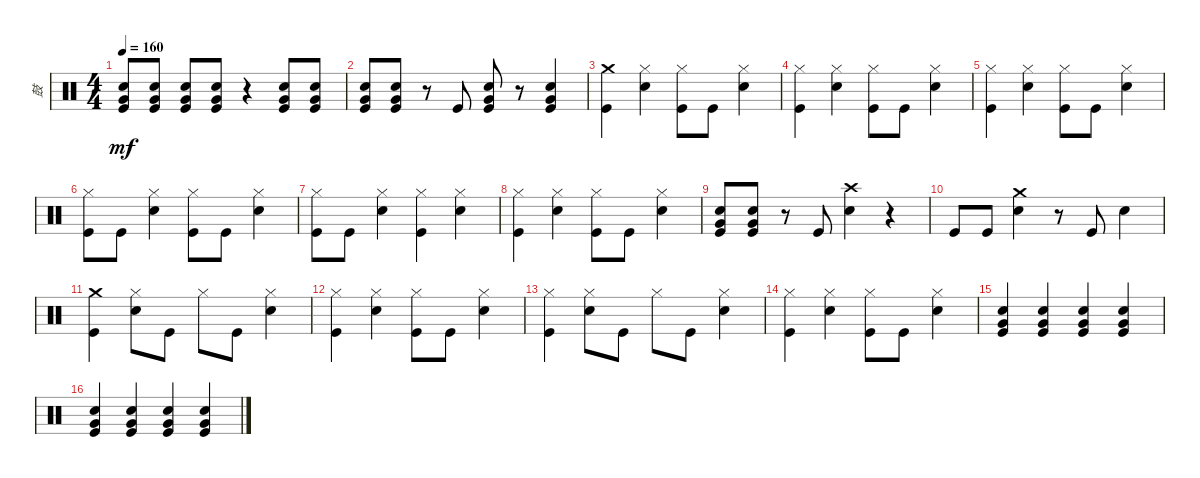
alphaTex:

\track ("鼓" "鼓") {instrument percussion}
\staff {score}
\articulation defaults
\ts (4 4)
\tempo 160
\clef neutral
\ks c
("Kick (hit)" "Very Low Tom (hit)" "Snare (hit) 2").8{dy mf} ("Kick (hit)" "Very Low Tom (hit)" "Snare (hit) 2").8 ("Kick (hit)" "Very Low Tom (hit)" "Snare (hit) 2").8 ("Kick (hit)" "Very Low Tom (hit)" "Snare (hit) 2").8 r.4 ("Kick (hit)" "Very Low Tom (hit)" "Snare (hit) 2").8 ("Kick (hit)" "Very Low Tom (hit)" "Snare (hit) 2").8 |
("Kick (hit)" "Very Low Tom (hit)" "Snare (hit) 2").8 ("Kick (hit)" "Very Low Tom (hit)" "Snare (hit) 2").8 r.8 "Kick (hit)".8 ("Kick (hit)" "Very Low Tom (hit)" "Snare (hit) 2").8 r.8 ("Kick (hit)" "Very Low Tom (hit)" "Snare (hit) 2").4 |
("Kick (hit)" "Crash medium (hit)").4 ("Hi-Hat (closed)" "Snare (hit) 2").4 ("Kick (hit)" "Hi-Hat (closed)").8 "Kick (hit)".8 ("Snare (hit) 2" "Hi-Hat (closed)").4 |
("Kick (hit)" "Hi-Hat (closed)").4 ("Hi-Hat (closed)" "Snare (hit) 2").4 ("Kick (hit)" "Hi-Hat (closed)").8 "Kick (hit)".8 ("Snare (hit) 2" "Hi-Hat (closed)").4 |
("Kick (hit)" "Hi-Hat (closed)").4 ("Hi-Hat (closed)" "Snare (hit) 2").4 ("Kick (hit)" "Hi-Hat (closed)").8 "Kick (hit)".8 ("Snare (hit) 2" "Hi-Hat (closed)").4 |
("Kick (hit)" "Hi-Hat (closed)").8 "Kick (hit)".8 ("Snare (hit) 2" "Hi-Hat (closed)").4 ("Kick (hit)" "Hi-Hat (closed)").8 "Kick (hit)".8 ("Snare (hit) 2" "Hi-Hat (closed)").4 |
("Kick (hit)" "Hi-Hat (closed)").8 "Kick (hit)".8 ("Snare (hit) 2" "Hi-Hat (closed)").4 ("Kick (hit)" "Hi-Hat (closed)").4 ("Hi-Hat (closed)" "Snare (hit) 2").4 |
("Kick (hit)" "Hi-Hat (closed)").4 ("Hi-Hat (closed)" "Snare (hit) 2").4 ("Kick (hit)" "Hi-Hat (closed)").8 "Kick (hit)".8 ("Snare (hit) 2" "Hi-Hat (closed)").4 |
("Kick (hit)" "Very Low Tom (hit)" "Snare (hit) 2").8 ("Kick (hit)" "Very Low Tom (hit)" "Snare (hit) 2").8 r.8 "Kick (hit)".8 ("Snare (hit) 2" "Crash high (hit)").4 r.4 |
"Kick (hit)".8 "Kick (hit)".8 ("Snare (hit) 2" "Crash medium (hit)").4 r.8 "Kick (hit)".8 "Snare (hit) 2".4 |
("Crash medium (hit)" "Kick (hit)").4 ("Snare (hit) 2" "Hi-Hat (closed)").8 "Kick (hit)".8 "Hi-Hat (closed)".8 "Kick (hit)".8 ("Snare (hit) 2" "Hi-Hat (closed)").4 |
("Kick (hit)" "Hi-Hat (closed)").4 ("Hi-Hat (closed)" "Snare (hit) 2").4 ("Kick (hit)" "Hi-Hat (closed)").8 "Kick (hit)".8 ("Snare (hit) 2" "Hi-Hat (closed)").4 |
("Kick (hit)" "Hi-Hat (closed)").4 ("Snare (hit) 2" "Hi-Hat (closed)").8 "Kick (hit)".8 "Hi-Hat (closed)".8 "Kick (hit)".8 ("Snare (hit) 2" "Hi-Hat (closed)").4 |
("Kick (hit)" "Hi-Hat (closed)").4 ("Hi-Hat (closed)" "Snare (hit) 2").4 ("Kick (hit)" "Hi-Hat (closed)").8 "Kick (hit)".8 ("Snare (hit) 2" "Hi-Hat (closed)").4 |
("Kick (hit)" "Snare (hit) 2" "Very Low Tom (hit)").4 ("Kick (hit)" "Snare (hit) 2" "Very Low Tom (hit)").4 ("Kick (hit)" "Snare (hit) 2" "Very Low Tom (hit)").4 ("Kick (hit)" "Snare (hit) 2" "Very Low Tom (hit)").4 |
("Kick (hit)" "Snare (hit) 2" "Very Low Tom (hit)").4 ("Kick (hit)" "Snare (hit) 2" "Very Low Tom (hit)").4 ("Kick (hit)" "Snare (hit) 2" "Very Low Tom (hit)").4 ("Kick (hit)" "Snare (hit) 2" "Very Low Tom (hit)").4
